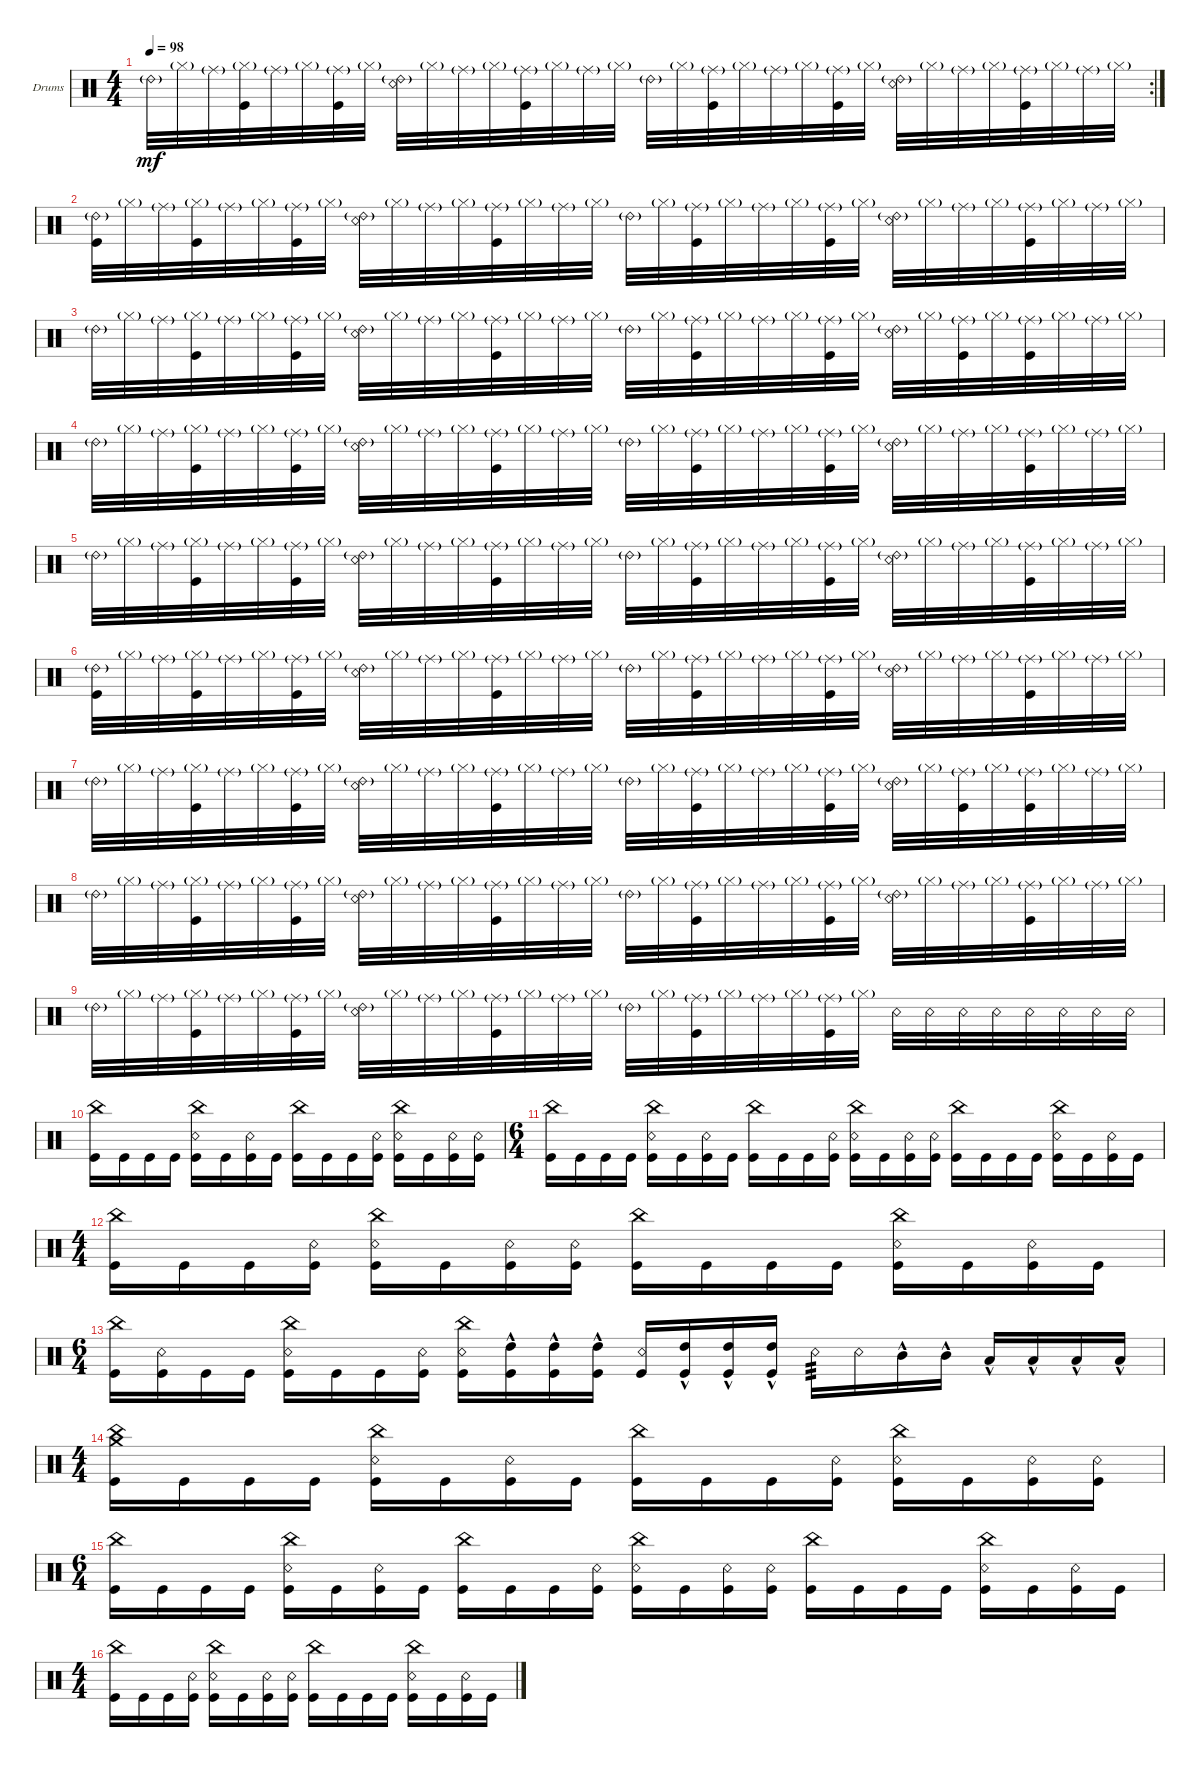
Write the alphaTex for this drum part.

\defaultSystemsLayout 4
\bracketExtendMode groupsimilarinstruments
\firstSystemTrackNameOrientation horizontal
\otherSystemsTrackNameOrientation horizontal
\track ("Drumkit" "Drums") {instrument percussion}
\staff {score}
\articulation defaults
\rc 2
\ts (4 4)
\tempo 98
\clef neutral
\scale
0.333333
\ks c "Ride (bell) 2"{g}.32{dy mf} "Hi-Hat (closed)"{g}.32 "Ride (middle)"{g}.32
("Hi-Hat (closed)"{g} "Kick (hit)").32 "Ride (middle)"{g}.32 "Hi-Hat (closed)"{g}.32 ("Ride (middle)"{g} "Kick (hit)").32 "Hi-Hat (closed)"{g}.32 ("Ride (bell) 2"{g} "Snare (rim shot)").32 "Hi-Hat (closed)"{g}.32 "Ride (middle)"{g}.32 "Hi-Hat (closed)"{g}.32 ("Ride (middle)"{g} "Kick (hit)").32 "Hi-Hat (closed)"{g}.32 "Ride (middle)"{g}.32 "Hi-Hat (closed)"{g}.32 "Ride (bell) 2"{g}.32 "Hi-Hat (closed)"{g}.32 ("Ride (middle)"{g} "Kick (hit)").32 "Hi-Hat (closed)"{g}.32 "Ride (middle)"{g}.32 "Hi-Hat (closed)"{g}.32 ("Ride (middle)"{g} "Kick (hit)").32 "Hi-Hat (closed)"{g}.32 ("Ride (bell) 2"{g} "Snare (rim shot)").32 "Hi-Hat (closed)"{g}.32 "Ride (middle)"{g}.32 "Hi-Hat (closed)"{g}.32 ("Ride (middle)"{g} "Kick (hit)").32 "Hi-Hat (closed)"{g}.32 "Ride (middle)"{g}.32 "Hi-Hat (closed)"{g}.32 |
\scale
0.333333 ("Ride (bell) 2"{g} "Kick (hit)").32 "Hi-Hat (closed)"{g}.32 "Ride (middle)"{g}.32 ("Hi-Hat (closed)"{g} "Kick (hit)").32 "Ride (middle)"{g}.32 "Hi-Hat (closed)"{g}.32 ("Ride (middle)"{g} "Kick (hit)").32 "Hi-Hat (closed)"{g}.32 ("Ride (bell) 2"{g} "Snare (rim shot)").32 "Hi-Hat (closed)"{g}.32 "Ride (middle)"{g}.32 "Hi-Hat (closed)"{g}.32 ("Ride (middle)"{g} "Kick (hit)").32 "Hi-Hat (closed)"{g}.32 "Ride (middle)"{g}.32 "Hi-Hat (closed)"{g}.32 "Ride (bell) 2"{g}.32 "Hi-Hat (closed)"{g}.32 ("Ride (middle)"{g} "Kick (hit)").32 "Hi-Hat (closed)"{g}.32 "Ride (middle)"{g}.32 "Hi-Hat (closed)"{g}.32 ("Ride (middle)"{g} "Kick (hit)").32 "Hi-Hat (closed)"{g}.32 ("Ride (bell) 2"{g} "Snare (rim shot)").32 "Hi-Hat (closed)"{g}.32 "Ride (middle)"{g}.32 "Hi-Hat (closed)"{g}.32 ("Ride (middle)"{g} "Kick (hit)").32 "Hi-Hat (closed)"{g}.32 "Ride (middle)"{g}.32 "Hi-Hat (closed)"{g}.32 |
\scale
0.333333 "Ride (bell) 2"{g}.32 "Hi-Hat (closed)"{g}.32 "Ride (middle)"{g}.32 ("Hi-Hat (closed)"{g} "Kick (hit)").32 "Ride (middle)"{g}.32 "Hi-Hat (closed)"{g}.32 ("Ride (middle)"{g} "Kick (hit)").32 "Hi-Hat (closed)"{g}.32 ("Ride (bell) 2"{g} "Snare (rim shot)").32 "Hi-Hat (closed)"{g}.32 "Ride (middle)"{g}.32 "Hi-Hat (closed)"{g}.32 ("Ride (middle)"{g} "Kick (hit)").32 "Hi-Hat (closed)"{g}.32 "Ride (middle)"{g}.32 "Hi-Hat (closed)"{g}.32 "Ride (bell) 2"{g}.32 "Hi-Hat (closed)"{g}.32 ("Ride (middle)"{g} "Kick (hit)").32 "Hi-Hat (closed)"{g}.32 "Ride (middle)"{g}.32 "Hi-Hat (closed)"{g}.32 ("Ride (middle)"{g} "Kick (hit)").32 "Hi-Hat (closed)"{g}.32 ("Ride (bell) 2"{g} "Snare (rim shot)").32 "Hi-Hat (closed)"{g}.32 ("Ride (middle)"{g} "Kick (hit)").32 "Hi-Hat (closed)"{g}.32 ("Ride (middle)"{g} "Kick (hit)").32 "Hi-Hat (closed)"{g}.32 "Ride (middle)"{g}.32 "Hi-Hat (closed)"{g}.32 |
\scale
0.333333 "Ride (bell) 2"{g}.32 "Hi-Hat (closed)"{g}.32 "Ride (middle)"{g}.32 ("Hi-Hat (closed)"{g} "Kick (hit)").32 "Ride (middle)"{g}.32 "Hi-Hat (closed)"{g}.32 ("Ride (middle)"{g} "Kick (hit)").32 "Hi-Hat (closed)"{g}.32 ("Ride (bell) 2"{g} "Snare (rim shot)").32 "Hi-Hat (closed)"{g}.32 "Ride (middle)"{g}.32 "Hi-Hat (closed)"{g}.32 ("Ride (middle)"{g} "Kick (hit)").32 "Hi-Hat (closed)"{g}.32 "Ride (middle)"{g}.32 "Hi-Hat (closed)"{g}.32 "Ride (bell) 2"{g}.32 "Hi-Hat (closed)"{g}.32 ("Ride (middle)"{g} "Kick (hit)").32 "Hi-Hat (closed)"{g}.32 "Ride (middle)"{g}.32 "Hi-Hat (closed)"{g}.32 ("Ride (middle)"{g} "Kick (hit)").32 "Hi-Hat (closed)"{g}.32 ("Ride (bell) 2"{g} "Snare (rim shot)").32 "Hi-Hat (closed)"{g}.32 "Ride (middle)"{g}.32 "Hi-Hat (closed)"{g}.32 ("Ride (middle)"{g} "Kick (hit)").32 "Hi-Hat (closed)"{g}.32 "Ride (middle)"{g}.32 "Hi-Hat (closed)"{g}.32 |
\scale
0.333333 "Ride (bell) 2"{g}.32 "Hi-Hat (closed)"{g}.32 "Ride (middle)"{g}.32 ("Hi-Hat (closed)"{g} "Kick (hit)").32 "Ride (middle)"{g}.32 "Hi-Hat (closed)"{g}.32 ("Ride (middle)"{g} "Kick (hit)").32 "Hi-Hat (closed)"{g}.32 ("Ride (bell) 2"{g} "Snare (rim shot)").32 "Hi-Hat (closed)"{g}.32 "Ride (middle)"{g}.32 "Hi-Hat (closed)"{g}.32 ("Ride (middle)"{g} "Kick (hit)").32 "Hi-Hat (closed)"{g}.32 "Ride (middle)"{g}.32 "Hi-Hat (closed)"{g}.32 "Ride (bell) 2"{g}.32 "Hi-Hat (closed)"{g}.32 ("Ride (middle)"{g} "Kick (hit)").32 "Hi-Hat (closed)"{g}.32 "Ride (middle)"{g}.32 "Hi-Hat (closed)"{g}.32 ("Ride (middle)"{g} "Kick (hit)").32 "Hi-Hat (closed)"{g}.32 ("Ride (bell) 2"{g} "Snare (rim shot)").32 "Hi-Hat (closed)"{g}.32 "Ride (middle)"{g}.32 "Hi-Hat (closed)"{g}.32 ("Ride (middle)"{g} "Kick (hit)").32 "Hi-Hat (closed)"{g}.32 "Ride (middle)"{g}.32 "Hi-Hat (closed)"{g}.32 |
\scale
0.333333 ("Ride (bell) 2"{g} "Kick (hit)").32 "Hi-Hat (closed)"{g}.32 "Ride (middle)"{g}.32 ("Hi-Hat (closed)"{g} "Kick (hit)").32 "Ride (middle)"{g}.32 "Hi-Hat (closed)"{g}.32 ("Ride (middle)"{g} "Kick (hit)").32 "Hi-Hat (closed)"{g}.32 ("Ride (bell) 2"{g} "Snare (rim shot)").32 "Hi-Hat (closed)"{g}.32 "Ride (middle)"{g}.32 "Hi-Hat (closed)"{g}.32 ("Ride (middle)"{g} "Kick (hit)").32 "Hi-Hat (closed)"{g}.32 "Ride (middle)"{g}.32 "Hi-Hat (closed)"{g}.32 "Ride (bell) 2"{g}.32 "Hi-Hat (closed)"{g}.32 ("Ride (middle)"{g} "Kick (hit)").32 "Hi-Hat (closed)"{g}.32 "Ride (middle)"{g}.32 "Hi-Hat (closed)"{g}.32 ("Ride (middle)"{g} "Kick (hit)").32 "Hi-Hat (closed)"{g}.32 ("Ride (bell) 2"{g} "Snare (rim shot)").32 "Hi-Hat (closed)"{g}.32 "Ride (middle)"{g}.32 "Hi-Hat (closed)"{g}.32 ("Ride (middle)"{g} "Kick (hit)").32 "Hi-Hat (closed)"{g}.32 "Ride (middle)"{g}.32 "Hi-Hat (closed)"{g}.32 |
\scale
0.333333 "Ride (bell) 2"{g}.32 "Hi-Hat (closed)"{g}.32 "Ride (middle)"{g}.32 ("Hi-Hat (closed)"{g} "Kick (hit)").32 "Ride (middle)"{g}.32 "Hi-Hat (closed)"{g}.32 ("Ride (middle)"{g} "Kick (hit)").32 "Hi-Hat (closed)"{g}.32 ("Ride (bell) 2"{g} "Snare (rim shot)").32 "Hi-Hat (closed)"{g}.32 "Ride (middle)"{g}.32 "Hi-Hat (closed)"{g}.32 ("Ride (middle)"{g} "Kick (hit)").32 "Hi-Hat (closed)"{g}.32 "Ride (middle)"{g}.32 "Hi-Hat (closed)"{g}.32 "Ride (bell) 2"{g}.32 "Hi-Hat (closed)"{g}.32 ("Ride (middle)"{g} "Kick (hit)").32 "Hi-Hat (closed)"{g}.32 "Ride (middle)"{g}.32 "Hi-Hat (closed)"{g}.32 ("Ride (middle)"{g} "Kick (hit)").32 "Hi-Hat (closed)"{g}.32 ("Ride (bell) 2"{g} "Snare (rim shot)").32 "Hi-Hat (closed)"{g}.32 ("Ride (middle)"{g} "Kick (hit)").32 "Hi-Hat (closed)"{g}.32 ("Ride (middle)"{g} "Kick (hit)").32 "Hi-Hat (closed)"{g}.32 "Ride (middle)"{g}.32 "Hi-Hat (closed)"{g}.32 |
\scale
0.333333 "Ride (bell) 2"{g}.32 "Hi-Hat (closed)"{g}.32 "Ride (middle)"{g}.32 ("Hi-Hat (closed)"{g} "Kick (hit)").32 "Ride (middle)"{g}.32 "Hi-Hat (closed)"{g}.32 ("Ride (middle)"{g} "Kick (hit)").32 "Hi-Hat (closed)"{g}.32 ("Ride (bell) 2"{g} "Snare (rim shot)").32 "Hi-Hat (closed)"{g}.32 "Ride (middle)"{g}.32 "Hi-Hat (closed)"{g}.32 ("Ride (middle)"{g} "Kick (hit)").32 "Hi-Hat (closed)"{g}.32 "Ride (middle)"{g}.32 "Hi-Hat (closed)"{g}.32 "Ride (bell) 2"{g}.32 "Hi-Hat (closed)"{g}.32 ("Ride (middle)"{g} "Kick (hit)").32 "Hi-Hat (closed)"{g}.32 "Ride (middle)"{g}.32 "Hi-Hat (closed)"{g}.32 ("Ride (middle)"{g} "Kick (hit)").32 "Hi-Hat (closed)"{g}.32 ("Ride (bell) 2"{g} "Snare (rim shot)").32 "Hi-Hat (closed)"{g}.32 "Ride (middle)"{g}.32 "Hi-Hat (closed)"{g}.32 ("Ride (middle)"{g} "Kick (hit)").32 "Hi-Hat (closed)"{g}.32 "Ride (middle)"{g}.32 "Hi-Hat (closed)"{g}.32 |
\scale
0.333333 "Ride (bell) 2"{g}.32 "Hi-Hat (closed)"{g}.32 "Ride (middle)"{g}.32 ("Hi-Hat (closed)"{g} "Kick (hit)").32 "Ride (middle)"{g}.32 "Hi-Hat (closed)"{g}.32 ("Ride (middle)"{g} "Kick (hit)").32 "Hi-Hat (closed)"{g}.32 ("Ride (bell) 2"{g} "Snare (rim shot)").32 "Hi-Hat (closed)"{g}.32 "Ride (middle)"{g}.32 "Hi-Hat (closed)"{g}.32 ("Ride (middle)"{g} "Kick (hit)").32 "Hi-Hat (closed)"{g}.32 "Ride (middle)"{g}.32 "Hi-Hat (closed)"{g}.32 "Ride (bell) 2"{g}.32 "Hi-Hat (closed)"{g}.32 ("Ride (middle)"{g} "Kick (hit)").32 "Hi-Hat (closed)"{g}.32 "Ride (middle)"{g}.32 "Hi-Hat (closed)"{g}.32 ("Ride (middle)"{g} "Kick (hit)").32 "Hi-Hat (closed)"{g}.32 "Snare (rim shot)".32 "Snare (rim shot)".32 "Snare (rim shot)".32 "Snare (rim shot)".32 "Snare (rim shot)".32 "Snare (rim shot)".32 "Snare (rim shot)".32 "Snare (rim shot)".32 |
\scale
0.333333 ("Kick (hit)" "China (hit)").16 "Kick (hit)".16 "Kick (hit)".16 "Kick (hit)".16 ("Kick (hit)" "Snare (rim shot)" "China (hit)").16 "Kick (hit)".16 ("Kick (hit)" "Snare (rim shot)").16 "Kick (hit)".16 ("Kick (hit)" "China (hit)").16 "Kick (hit)".16 "Kick (hit)".16 ("Kick (hit)" "Snare (rim shot)").16 ("Kick (hit)" "China (hit)" "Snare (rim shot)").16 "Kick (hit)".16 ("Kick (hit)" "Snare (rim shot)").16 ("Kick (hit)" "Snare (rim shot)").16 |
\ts (6 4)
\scale
0.333333 ("Kick (hit)" "China (hit)").16 "Kick (hit)".16 "Kick (hit)".16 "Kick (hit)".16 ("Kick (hit)" "Snare (rim shot)" "China (hit)").16 "Kick (hit)".16 ("Kick (hit)" "Snare (rim shot)").16 "Kick (hit)".16 ("Kick (hit)" "China (hit)").16 "Kick (hit)".16 "Kick (hit)".16 ("Kick (hit)" "Snare (rim shot)").16 ("Kick (hit)" "China (hit)" "Snare (rim shot)").16 "Kick (hit)".16 ("Kick (hit)" "Snare (rim shot)").16 ("Kick (hit)" "Snare (rim shot)").16 ("Kick (hit)" "China (hit)").16 "Kick (hit)".16 "Kick (hit)".16 "Kick (hit)".16 ("Kick (hit)" "Snare (rim shot)" "China (hit)").16 "Kick (hit)".16 ("Kick (hit)" "Snare (rim shot)").16 "Kick (hit)".16 |
\ts (4 4)
\scale
0.333333 ("Kick (hit)" "China (hit)").16 "Kick (hit)".16 "Kick (hit)".16 ("Kick (hit)" "Snare (rim shot)").16 ("Kick (hit)" "China (hit)" "Snare (rim shot)").16 "Kick (hit)".16 ("Kick (hit)" "Snare (rim shot)").16 ("Kick (hit)" "Snare (rim shot)").16 ("Kick (hit)" "China (hit)").16 "Kick (hit)".16 "Kick (hit)".16 "Kick (hit)".16 ("Kick (hit)" "Snare (rim shot)" "China (hit)").16 "Kick (hit)".16 ("Kick (hit)" "Snare (rim shot)").16 "Kick (hit)".16 |
\ts (6 4)
\scale
0.333333 ("Kick (hit)" "China (hit)").16 ("Kick (hit)" "Snare (rim shot)").16 "Kick (hit)".16 "Kick (hit)".16 ("Kick (hit)" "China (hit)" "Snare (rim shot)").16 "Kick (hit)".16 "Kick (hit)".16 ("Kick (hit)" "Snare (rim shot)").16 ("Kick (hit)" "China (hit)" "Snare (rim shot)").16 ("Kick (hit)" "High Tom (hit)"{hac}).16 ("Kick (hit)" "High Tom (hit)"{hac}).16 ("Kick (hit)" "High Tom (hit)"{hac}).16 ("Kick (hit)" "Snare (rim shot)").16 ("Kick (hit)" "High Tom (hit)"{hac}).16 ("Kick (hit)" "High Tom (hit)"{hac}).16 ("Kick (hit)" "High Tom (hit)"{hac}).16 "Snare (rim shot)".16{tp 3} "Snare (rim shot)".16 "Mid Tom (hit)"{hac}.16 "Mid Tom (hit)"{hac}.16 "Low Tom (hit)"{hac}.16 "Low Tom (hit)"{hac}.16 "Low Tom (hit)"{hac}.16 "Low Tom (hit)"{hac}.16 |
\ts (4 4)
\scale
0.333333 ("Kick (hit)" "China (hit)" "Crash medium (hit)").16 "Kick (hit)".16 "Kick (hit)".16 "Kick (hit)".16 ("Kick (hit)" "Snare (rim shot)" "China (hit)").16 "Kick (hit)".16 ("Kick (hit)" "Snare (rim shot)").16 "Kick (hit)".16 ("Kick (hit)" "China (hit)").16 "Kick (hit)".16 "Kick (hit)".16 ("Kick (hit)" "Snare (rim shot)").16 ("Kick (hit)" "China (hit)" "Snare (rim shot)").16 "Kick (hit)".16 ("Kick (hit)" "Snare (rim shot)").16 ("Kick (hit)" "Snare (rim shot)").16 |
\ts (6 4)
\scale
0.333333 ("Kick (hit)" "China (hit)").16 "Kick (hit)".16 "Kick (hit)".16 "Kick (hit)".16 ("Kick (hit)" "Snare (rim shot)" "China (hit)").16 "Kick (hit)".16 ("Kick (hit)" "Snare (rim shot)").16 "Kick (hit)".16 ("Kick (hit)" "China (hit)").16 "Kick (hit)".16 "Kick (hit)".16 ("Kick (hit)" "Snare (rim shot)").16 ("Kick (hit)" "China (hit)" "Snare (rim shot)").16 "Kick (hit)".16 ("Kick (hit)" "Snare (rim shot)").16 ("Kick (hit)" "Snare (rim shot)").16 ("Kick (hit)" "China (hit)").16 "Kick (hit)".16 "Kick (hit)".16 "Kick (hit)".16 ("Kick (hit)" "Snare (rim shot)" "China (hit)").16 "Kick (hit)".16 ("Kick (hit)" "Snare (rim shot)").16 "Kick (hit)".16 |
\ts (4 4)
\scale
0.333333 ("Kick (hit)" "China (hit)").16 "Kick (hit)".16 "Kick (hit)".16 ("Kick (hit)" "Snare (rim shot)").16 ("Kick (hit)" "China (hit)" "Snare (rim shot)").16 "Kick (hit)".16 ("Kick (hit)" "Snare (rim shot)").16 ("Kick (hit)" "Snare (rim shot)").16 ("Kick (hit)" "China (hit)").16 "Kick (hit)".16 "Kick (hit)".16 "Kick (hit)".16 ("Kick (hit)" "Snare (rim shot)" "China (hit)").16 "Kick (hit)".16 ("Kick (hit)" "Snare (rim shot)").16 "Kick (hit)".16
